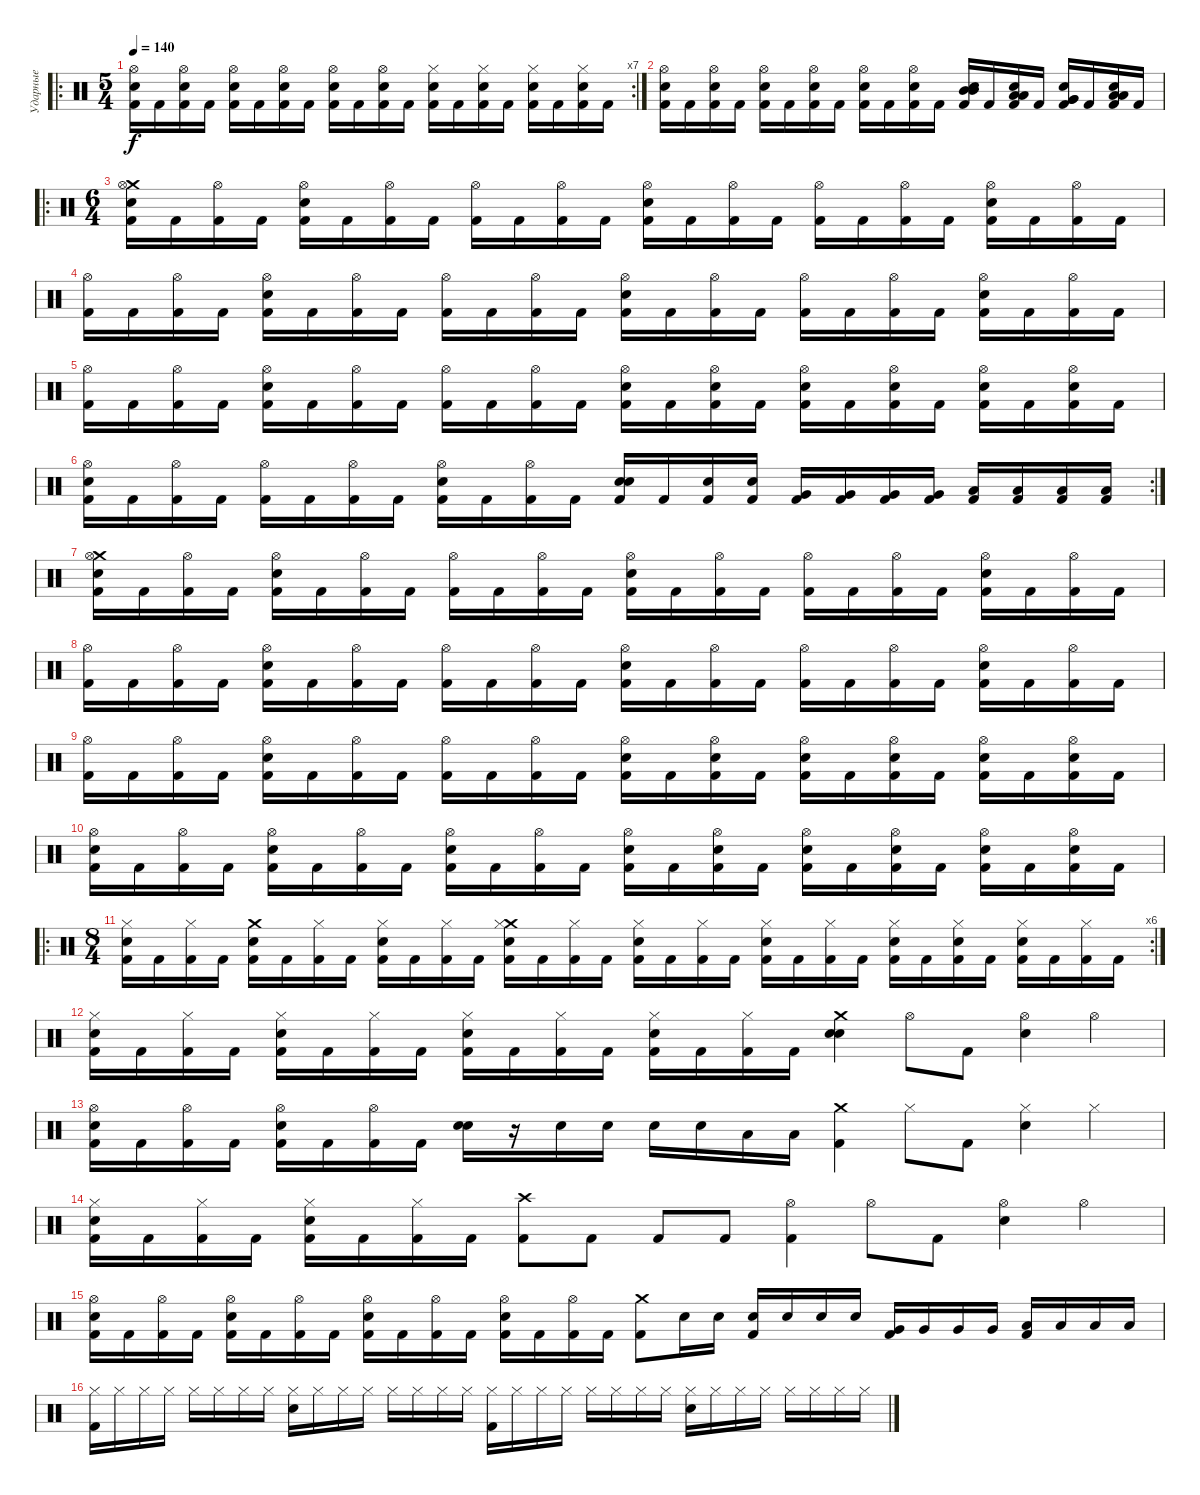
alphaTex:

\track ("Ударные" "Ударные") {instrument percussion}
\staff {score}
\articulation defaults
\ro
\rc 7
\ts (5 4)
\tempo 140
\clef neutral
\ks c
("Hi-Hat (open)" "Snare (hit) 2" "Kick (hit) 2").16{dy f} "Kick (hit) 2".16 ("Hi-Hat (open)" "Snare (hit) 2" "Kick (hit) 2").16 "Kick (hit) 2".16 ("Hi-Hat (open)" "Snare (hit) 2" "Kick (hit) 2").16 "Kick (hit) 2".16 ("Hi-Hat (open)" "Snare (hit) 2" "Kick (hit) 2").16 "Kick (hit) 2".16 ("Hi-Hat (open)" "Snare (hit) 2" "Kick (hit) 2").16 "Kick (hit) 2".16 ("Hi-Hat (open)" "Snare (hit) 2" "Kick (hit) 2").16 "Kick (hit) 2".16 ("Hi-Hat (closed)" "Snare (hit) 2" "Kick (hit) 2").16 "Kick (hit) 2".16 ("Hi-Hat (closed)" "Snare (hit) 2" "Kick (hit) 2").16 "Kick (hit) 2".16 ("Hi-Hat (closed)" "Snare (hit) 2" "Kick (hit) 2").16 "Kick (hit) 2".16 ("Hi-Hat (closed)" "Snare (hit) 2" "Kick (hit) 2").16 "Kick (hit) 2".16 |
("Hi-Hat (open)" "Snare (hit) 2" "Kick (hit) 2").16 "Kick (hit) 2".16 ("Hi-Hat (open)" "Snare (hit) 2" "Kick (hit) 2").16 "Kick (hit) 2".16 ("Hi-Hat (open)" "Snare (hit) 2" "Kick (hit) 2").16 "Kick (hit) 2".16 ("Hi-Hat (open)" "Snare (hit) 2" "Kick (hit) 2").16 "Kick (hit) 2".16 ("Hi-Hat (open)" "Snare (hit) 2" "Kick (hit) 2").16 "Kick (hit) 2".16 ("Hi-Hat (open)" "Snare (hit) 2" "Kick (hit) 2").16 "Kick (hit) 2".16 ("Mid Tom (hit)" "Mid Tom (hit)" "Snare (hit) 2" "Kick (hit) 2").16 "Kick (hit) 2".16 ("Low Tom (hit)" "Low Tom (hit)" "Snare (hit) 2" "Kick (hit) 2").16 "Kick (hit) 2".16 ("Very Low Tom (hit)" "Very Low Tom (hit)" "Snare (hit) 2" "Kick (hit) 2").16 "Kick (hit) 2".16 ("Low Floor Tom (hit)" "Low Floor Tom (hit)" "Snare (hit) 2" "Kick (hit) 2").16 "Kick (hit) 2".16 |
\ro
\ts (6 4)
("Crash medium (hit)" "Hi-Hat (open)" "Snare (hit) 2" "Kick (hit) 2").16 "Kick (hit) 2".16 ("Hi-Hat (open)" "Kick (hit) 2").16 "Kick (hit) 2".16 ("Hi-Hat (open)" "Snare (hit) 2" "Kick (hit) 2").16 "Kick (hit) 2".16 ("Hi-Hat (open)" "Kick (hit) 2").16 "Kick (hit) 2".16 ("Hi-Hat (open)" "Kick (hit) 2").16 "Kick (hit) 2".16 ("Hi-Hat (open)" "Kick (hit) 2").16 "Kick (hit) 2".16 ("Hi-Hat (open)" "Snare (hit) 2" "Kick (hit) 2").16 "Kick (hit) 2".16 ("Hi-Hat (open)" "Kick (hit) 2").16 "Kick (hit) 2".16 ("Hi-Hat (open)" "Kick (hit) 2").16 "Kick (hit) 2".16 ("Hi-Hat (open)" "Kick (hit) 2").16 "Kick (hit) 2".16 ("Hi-Hat (open)" "Snare (hit) 2" "Kick (hit) 2").16 "Kick (hit) 2".16 ("Hi-Hat (open)" "Kick (hit) 2").16 "Kick (hit) 2".16 |
("Hi-Hat (open)" "Kick (hit) 2").16 "Kick (hit) 2".16 ("Hi-Hat (open)" "Kick (hit) 2").16 "Kick (hit) 2".16 ("Hi-Hat (open)" "Snare (hit) 2" "Kick (hit) 2").16 "Kick (hit) 2".16 ("Hi-Hat (open)" "Kick (hit) 2").16 "Kick (hit) 2".16 ("Hi-Hat (open)" "Kick (hit) 2").16 "Kick (hit) 2".16 ("Hi-Hat (open)" "Kick (hit) 2").16 "Kick (hit) 2".16 ("Hi-Hat (open)" "Snare (hit) 2" "Kick (hit) 2").16 "Kick (hit) 2".16 ("Hi-Hat (open)" "Kick (hit) 2").16 "Kick (hit) 2".16 ("Hi-Hat (open)" "Kick (hit) 2").16 "Kick (hit) 2".16 ("Hi-Hat (open)" "Kick (hit) 2").16 "Kick (hit) 2".16 ("Hi-Hat (open)" "Snare (hit) 2" "Kick (hit) 2").16 "Kick (hit) 2".16 ("Hi-Hat (open)" "Kick (hit) 2").16 "Kick (hit) 2".16 |
("Hi-Hat (open)" "Kick (hit) 2").16 "Kick (hit) 2".16 ("Hi-Hat (open)" "Kick (hit) 2").16 "Kick (hit) 2".16 ("Hi-Hat (open)" "Snare (hit) 2" "Kick (hit) 2").16 "Kick (hit) 2".16 ("Hi-Hat (open)" "Kick (hit) 2").16 "Kick (hit) 2".16 ("Hi-Hat (open)" "Kick (hit) 2").16 "Kick (hit) 2".16 ("Hi-Hat (open)" "Kick (hit) 2").16 "Kick (hit) 2".16 ("Hi-Hat (open)" "Snare (hit) 2" "Kick (hit) 2").16 "Kick (hit) 2".16 ("Hi-Hat (open)" "Snare (hit) 2" "Kick (hit) 2").16 "Kick (hit) 2".16 ("Hi-Hat (open)" "Snare (hit) 2" "Kick (hit) 2").16 "Kick (hit) 2".16 ("Hi-Hat (open)" "Snare (hit) 2" "Kick (hit) 2").16 "Kick (hit) 2".16 ("Hi-Hat (open)" "Snare (hit) 2" "Kick (hit) 2").16 "Kick (hit) 2".16 ("Hi-Hat (open)" "Snare (hit) 2" "Kick (hit) 2").16 "Kick (hit) 2".16 |
\rc 2
("Hi-Hat (open)" "Snare (hit) 2" "Kick (hit) 2").16 "Kick (hit) 2".16 ("Hi-Hat (open)" "Kick (hit) 2").16 "Kick (hit) 2".16 ("Hi-Hat (open)" "Kick (hit) 2").16 "Kick (hit) 2".16 ("Hi-Hat (open)" "Kick (hit) 2").16 "Kick (hit) 2".16 ("Hi-Hat (open)" "Snare (hit) 2" "Kick (hit) 2").16 "Kick (hit) 2".16 ("Hi-Hat (open)" "Kick (hit) 2").16 "Kick (hit) 2".16 ("Snare (hit) 2" "Snare (hit) 2" "Kick (hit) 2").16 "Kick (hit) 2".16 ("Snare (hit) 2" "Kick (hit) 2").16 ("Snare (hit) 2" "Kick (hit) 2").16 ("Very Low Tom (hit)" "Kick (hit) 2").16 ("Very Low Tom (hit)" "Kick (hit) 2").16 ("Very Low Tom (hit)" "Kick (hit) 2").16 ("Very Low Tom (hit)" "Kick (hit) 2").16 ("Low Floor Tom (hit)" "Kick (hit) 2").16 ("Low Floor Tom (hit)" "Kick (hit) 2").16 ("Low Floor Tom (hit)" "Kick (hit) 2").16 ("Low Floor Tom (hit)" "Kick (hit) 2").16 |
("Crash medium (hit)" "Hi-Hat (open)" "Snare (hit) 2" "Kick (hit) 2").16 "Kick (hit) 2".16 ("Hi-Hat (open)" "Kick (hit) 2").16 "Kick (hit) 2".16 ("Hi-Hat (open)" "Snare (hit) 2" "Kick (hit) 2").16 "Kick (hit) 2".16 ("Hi-Hat (open)" "Kick (hit) 2").16 "Kick (hit) 2".16 ("Hi-Hat (open)" "Kick (hit) 2").16 "Kick (hit) 2".16 ("Hi-Hat (open)" "Kick (hit) 2").16 "Kick (hit) 2".16 ("Hi-Hat (open)" "Snare (hit) 2" "Kick (hit) 2").16 "Kick (hit) 2".16 ("Hi-Hat (open)" "Kick (hit) 2").16 "Kick (hit) 2".16 ("Hi-Hat (open)" "Kick (hit) 2").16 "Kick (hit) 2".16 ("Hi-Hat (open)" "Kick (hit) 2").16 "Kick (hit) 2".16 ("Hi-Hat (open)" "Snare (hit) 2" "Kick (hit) 2").16 "Kick (hit) 2".16 ("Hi-Hat (open)" "Kick (hit) 2").16 "Kick (hit) 2".16 |
("Hi-Hat (open)" "Kick (hit) 2").16 "Kick (hit) 2".16 ("Hi-Hat (open)" "Kick (hit) 2").16 "Kick (hit) 2".16 ("Hi-Hat (open)" "Snare (hit) 2" "Kick (hit) 2").16 "Kick (hit) 2".16 ("Hi-Hat (open)" "Kick (hit) 2").16 "Kick (hit) 2".16 ("Hi-Hat (open)" "Kick (hit) 2").16 "Kick (hit) 2".16 ("Hi-Hat (open)" "Kick (hit) 2").16 "Kick (hit) 2".16 ("Hi-Hat (open)" "Snare (hit) 2" "Kick (hit) 2").16 "Kick (hit) 2".16 ("Hi-Hat (open)" "Kick (hit) 2").16 "Kick (hit) 2".16 ("Hi-Hat (open)" "Kick (hit) 2").16 "Kick (hit) 2".16 ("Hi-Hat (open)" "Kick (hit) 2").16 "Kick (hit) 2".16 ("Hi-Hat (open)" "Snare (hit) 2" "Kick (hit) 2").16 "Kick (hit) 2".16 ("Hi-Hat (open)" "Kick (hit) 2").16 "Kick (hit) 2".16 |
("Hi-Hat (open)" "Kick (hit) 2").16 "Kick (hit) 2".16 ("Hi-Hat (open)" "Kick (hit) 2").16 "Kick (hit) 2".16 ("Hi-Hat (open)" "Snare (hit) 2" "Kick (hit) 2").16 "Kick (hit) 2".16 ("Hi-Hat (open)" "Kick (hit) 2").16 "Kick (hit) 2".16 ("Hi-Hat (open)" "Kick (hit) 2").16 "Kick (hit) 2".16 ("Hi-Hat (open)" "Kick (hit) 2").16 "Kick (hit) 2".16 ("Hi-Hat (open)" "Snare (hit) 2" "Kick (hit) 2").16 "Kick (hit) 2".16 ("Hi-Hat (open)" "Snare (hit) 2" "Kick (hit) 2").16 "Kick (hit) 2".16 ("Hi-Hat (open)" "Snare (hit) 2" "Kick (hit) 2").16 "Kick (hit) 2".16 ("Hi-Hat (open)" "Snare (hit) 2" "Kick (hit) 2").16 "Kick (hit) 2".16 ("Hi-Hat (open)" "Snare (hit) 2" "Kick (hit) 2").16 "Kick (hit) 2".16 ("Hi-Hat (open)" "Snare (hit) 2" "Kick (hit) 2").16 "Kick (hit) 2".16 |
("Hi-Hat (open)" "Snare (hit) 2" "Kick (hit) 2").16 "Kick (hit) 2".16 ("Hi-Hat (open)" "Kick (hit) 2").16 "Kick (hit) 2".16 ("Hi-Hat (open)" "Snare (hit) 2" "Kick (hit) 2").16 "Kick (hit) 2".16 ("Hi-Hat (open)" "Kick (hit) 2").16 "Kick (hit) 2".16 ("Hi-Hat (open)" "Snare (hit) 2" "Kick (hit) 2").16 "Kick (hit) 2".16 ("Hi-Hat (open)" "Kick (hit) 2").16 "Kick (hit) 2".16 ("Hi-Hat (open)" "Snare (hit) 2" "Kick (hit) 2").16 "Kick (hit) 2".16 ("Hi-Hat (open)" "Snare (hit) 2" "Kick (hit) 2").16 "Kick (hit) 2".16 ("Hi-Hat (open)" "Snare (hit) 2" "Kick (hit) 2").16 "Kick (hit) 2".16 ("Hi-Hat (open)" "Snare (hit) 2" "Kick (hit) 2").16 "Kick (hit) 2".16 ("Hi-Hat (open)" "Snare (hit) 2" "Kick (hit) 2").16 "Kick (hit) 2".16 ("Hi-Hat (open)" "Snare (hit) 2" "Kick (hit) 2").16 "Kick (hit) 2".16 |
\ro
\rc 6
\ts (8 4)
("Hi-Hat (closed)" "Snare (hit) 2" "Kick (hit) 2").16 "Kick (hit) 2".16 ("Hi-Hat (closed)" "Kick (hit) 2").16 "Kick (hit) 2".16 ("Crash medium (hit)" "Snare (hit) 2" "Kick (hit) 2").16 "Kick (hit) 2".16 ("Hi-Hat (closed)" "Kick (hit) 2").16 "Kick (hit) 2".16 ("Hi-Hat (closed)" "Snare (hit) 2" "Kick (hit) 2").16 "Kick (hit) 2".16 ("Hi-Hat (closed)" "Kick (hit) 2").16 "Kick (hit) 2".16 ("Crash medium (hit)" "Hi-Hat (closed)" "Snare (hit) 2" "Kick (hit) 2").16 "Kick (hit) 2".16 ("Hi-Hat (closed)" "Kick (hit) 2").16 "Kick (hit) 2".16 ("Hi-Hat (closed)" "Snare (hit) 2" "Kick (hit) 2").16 "Kick (hit) 2".16 ("Hi-Hat (closed)" "Kick (hit) 2").16 "Kick (hit) 2".16 ("Hi-Hat (closed)" "Snare (hit) 2" "Kick (hit) 2").16 "Kick (hit) 2".16 ("Hi-Hat (closed)" "Kick (hit) 2").16 "Kick (hit) 2".16 ("Hi-Hat (closed)" "Snare (hit) 2" "Kick (hit) 2").16 "Kick (hit) 2".16 ("Hi-Hat (closed)" "Snare (hit) 2" "Kick (hit) 2").16 "Kick (hit) 2".16 ("Hi-Hat (closed)" "Snare (hit) 2" "Kick (hit) 2").16 "Kick (hit) 2".16 ("Hi-Hat (closed)" "Kick (hit) 2").16 "Kick (hit) 2".16 |
("Hi-Hat (closed)" "Snare (hit) 2" "Kick (hit) 2").16 "Kick (hit) 2".16 ("Hi-Hat (closed)" "Kick (hit) 2").16 "Kick (hit) 2".16 ("Hi-Hat (closed)" "Snare (hit) 2" "Kick (hit) 2").16 "Kick (hit) 2".16 ("Hi-Hat (closed)" "Kick (hit) 2").16 "Kick (hit) 2".16 ("Hi-Hat (closed)" "Snare (hit) 2" "Kick (hit) 2").16 "Kick (hit) 2".16 ("Hi-Hat (closed)" "Kick (hit) 2").16 "Kick (hit) 2".16 ("Hi-Hat (closed)" "Snare (hit) 2" "Kick (hit) 2").16 "Kick (hit) 2".16 ("Hi-Hat (closed)" "Kick (hit) 2").16 "Kick (hit) 2".16 ("Crash medium (hit)" "Snare (hit) 2" "Snare (hit) 2").4 "Hi-Hat (open)".8 "Kick (hit) 2".8 ("Hi-Hat (open)" "Snare (hit) 2").4 "Hi-Hat (open)".4 |
("Hi-Hat (open)" "Snare (hit) 2" "Kick (hit) 2").16 "Kick (hit) 2".16 ("Hi-Hat (open)" "Kick (hit) 2").16 "Kick (hit) 2".16 ("Hi-Hat (open)" "Snare (hit) 2" "Kick (hit) 2").16 "Kick (hit) 2".16 ("Hi-Hat (open)" "Kick (hit) 2").16 "Kick (hit) 2".16 ("Snare (hit) 2" "Snare (hit) 2").16 r.16 "Snare (hit) 2".16 "Snare (hit) 2".16 "Snare (hit) 2".16 "Snare (hit) 2".16 "Low Floor Tom (hit)".16 "Low Floor Tom (hit)".16 ("Crash medium (hit)" "Kick (hit) 2").4 "Hi-Hat (closed)".8 "Kick (hit) 2".8 ("Hi-Hat (closed)" "Snare (hit) 2").4 "Hi-Hat (closed)".4 |
("Hi-Hat (closed)" "Snare (hit) 2" "Kick (hit) 2").16 "Kick (hit) 2".16 ("Hi-Hat (closed)" "Kick (hit) 2").16 "Kick (hit) 2".16 ("Hi-Hat (closed)" "Snare (hit) 2" "Kick (hit) 2").16 "Kick (hit) 2".16 ("Hi-Hat (closed)" "Kick (hit) 2").16 "Kick (hit) 2".16 ("Crash high (hit)" "Kick (hit) 2").8 "Kick (hit) 2".8 "Kick (hit) 2".8 "Kick (hit) 2".8 ("Hi-Hat (open)" "Kick (hit) 2").4 "Hi-Hat (open)".8 "Kick (hit) 2".8 ("Hi-Hat (open)" "Snare (hit) 2").4 "Hi-Hat (open)".4 |
("Hi-Hat (open)" "Snare (hit) 2" "Kick (hit) 2").16 "Kick (hit) 2".16 ("Hi-Hat (open)" "Kick (hit) 2").16 "Kick (hit) 2".16 ("Hi-Hat (open)" "Snare (hit) 2" "Kick (hit) 2").16 "Kick (hit) 2".16 ("Hi-Hat (open)" "Kick (hit) 2").16 "Kick (hit) 2".16 ("Hi-Hat (open)" "Snare (hit) 2" "Kick (hit) 2").16 "Kick (hit) 2".16 ("Hi-Hat (open)" "Kick (hit) 2").16 "Kick (hit) 2".16 ("Hi-Hat (open)" "Snare (hit) 2" "Kick (hit) 2").16 "Kick (hit) 2".16 ("Hi-Hat (open)" "Kick (hit) 2").16 "Kick (hit) 2".16 ("Crash medium (hit)" "Kick (hit) 2").8 "Snare (hit) 2".16 "Snare (hit) 2".16 ("Snare (hit) 2" "Kick (hit) 2").16 "Snare (hit) 2".16 "Snare (hit) 2".16 "Snare (hit) 2".16 ("Very Low Tom (hit)" "Kick (hit) 2").16 "Very Low Tom (hit)".16 "Very Low Tom (hit)".16 "Very Low Tom (hit)".16 ("Low Floor Tom (hit)" "Kick (hit) 2").16 "Low Floor Tom (hit)".16 "Low Floor Tom (hit)".16 "Low Floor Tom (hit)".16 |
("Hi-Hat (closed)" "Kick (hit) 2").16 "Hi-Hat (closed)".16 "Hi-Hat (closed)".16 "Hi-Hat (closed)".16 "Hi-Hat (closed)".16 "Hi-Hat (closed)".16 "Hi-Hat (closed)".16 "Hi-Hat (closed)".16 ("Hi-Hat (closed)" "Snare (hit) 2").16 "Hi-Hat (closed)".16 "Hi-Hat (closed)".16 "Hi-Hat (closed)".16 "Hi-Hat (closed)".16 "Hi-Hat (closed)".16 "Hi-Hat (closed)".16 "Hi-Hat (closed)".16 ("Hi-Hat (closed)" "Kick (hit) 2").16 "Hi-Hat (closed)".16 "Hi-Hat (closed)".16 "Hi-Hat (closed)".16 "Hi-Hat (closed)".16 "Hi-Hat (closed)".16 "Hi-Hat (closed)".16 "Hi-Hat (closed)".16 ("Hi-Hat (closed)" "Snare (hit) 2").16 "Hi-Hat (closed)".16 "Hi-Hat (closed)".16 "Hi-Hat (closed)".16 "Hi-Hat (closed)".16 "Hi-Hat (closed)".16 "Hi-Hat (closed)".16 "Hi-Hat (closed)".16
